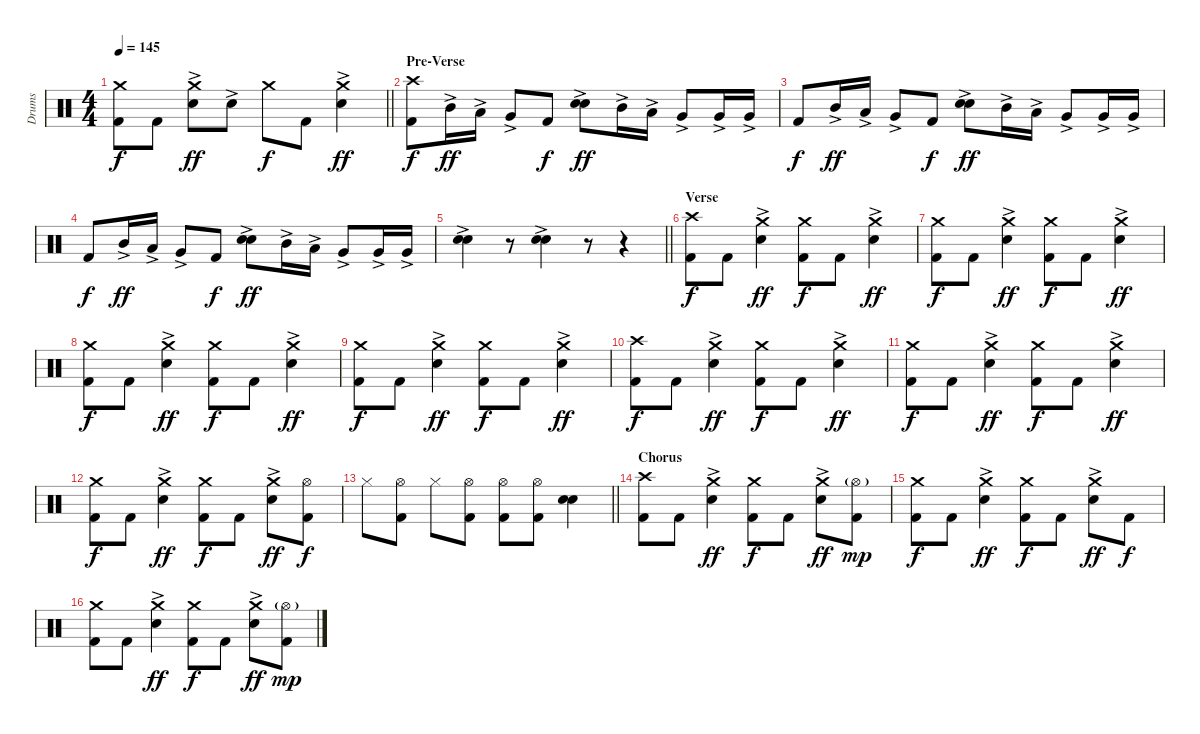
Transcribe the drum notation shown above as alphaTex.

\track ("Drums" "Drums") {instrument percussion}
\staff {score}
\articulation defaults
\ts (4 4)
\tempo 145
\clef neutral
\barLineRight lightlight
\ks c
("Crash medium (hit)" "Kick (hit) 2").8{dy f} "Kick (hit) 2".8 ("Crash medium (hit)" "Electric Snare (hit)"{ac}).8{dy ff} "Electric Snare (hit)"{ac}.8 "Crash medium (hit)".8{dy f} "Kick (hit) 2".8 ("Crash medium (hit)" "Electric Snare (hit)"{ac}).4{dy ff} |
\section ("" "Pre-Verse")
("Crash high (hit)" "Kick (hit) 2").8{dy f} "Mid Tom (hit)"{ac}.16{dy ff} "Low Tom (hit)"{ac}.16 "Very Low Tom (hit)"{ac}.8 "Kick (hit) 2".8{dy f} ("Electric Snare (hit)"{ac} "Electric Snare (hit)"{ac}).8{bu 120 dy ff} "Mid Tom (hit)"{ac}.16 "Low Tom (hit)"{ac}.16 "Very Low Tom (hit)"{ac}.8 "Very Low Tom (hit)"{ac}.16 "Very Low Tom (hit)"{ac}.16 |
"Kick (hit) 2".8{dy f} "Mid Tom (hit)"{ac}.16{dy ff} "Low Tom (hit)"{ac}.16 "Very Low Tom (hit)"{ac}.8 "Kick (hit) 2".8{dy f} ("Electric Snare (hit)"{ac} "Electric Snare (hit)"{ac}).8{bu 120 dy ff} "Mid Tom (hit)"{ac}.16 "Low Tom (hit)"{ac}.16 "Very Low Tom (hit)"{ac}.8 "Very Low Tom (hit)"{ac}.16 "Very Low Tom (hit)"{ac}.16 |
"Kick (hit) 2".8{dy f} "Mid Tom (hit)"{ac}.16{dy ff} "Low Tom (hit)"{ac}.16 "Very Low Tom (hit)"{ac}.8 "Kick (hit) 2".8{dy f} ("Electric Snare (hit)"{ac} "Electric Snare (hit)"{ac}).8{bu 120 dy ff} "Mid Tom (hit)"{ac}.16 "Low Tom (hit)"{ac}.16 "Very Low Tom (hit)"{ac}.8 "Very Low Tom (hit)"{ac}.16 "Very Low Tom (hit)"{ac}.16 |
\barLineRight lightlight
("Electric Snare (hit)"{ac} "Electric Snare (hit)"{ac}).4{bu 120} r.8 ("Electric Snare (hit)"{ac} "Electric Snare (hit)"{ac}).4{bu 120} r.8 r.4 |
\section ("" "Verse")
("Crash high (hit)" "Kick (hit) 2").8{dy f} "Kick (hit) 2".8 ("Crash medium (hit)" "Electric Snare (hit)"{ac}).4{dy ff} ("Crash medium (hit)" "Kick (hit) 2").8{dy f} "Kick (hit) 2".8 ("Crash medium (hit)" "Electric Snare (hit)"{ac}).4{dy ff} |
("Crash medium (hit)" "Kick (hit) 2").8{dy f} "Kick (hit) 2".8 ("Crash medium (hit)" "Electric Snare (hit)"{ac}).4{dy ff} ("Crash medium (hit)" "Kick (hit) 2").8{dy f} "Kick (hit) 2".8 ("Crash medium (hit)" "Electric Snare (hit)"{ac}).4{dy ff} |
("Crash medium (hit)" "Kick (hit) 2").8{dy f} "Kick (hit) 2".8 ("Crash medium (hit)" "Electric Snare (hit)"{ac}).4{dy ff} ("Crash medium (hit)" "Kick (hit) 2").8{dy f} "Kick (hit) 2".8 ("Crash medium (hit)" "Electric Snare (hit)"{ac}).4{dy ff} |
("Crash medium (hit)" "Kick (hit) 2").8{dy f} "Kick (hit) 2".8 ("Crash medium (hit)" "Electric Snare (hit)"{ac}).4{dy ff} ("Crash medium (hit)" "Kick (hit) 2").8{dy f} "Kick (hit) 2".8 ("Crash medium (hit)" "Electric Snare (hit)"{ac}).4{dy ff} |
("Crash high (hit)" "Kick (hit) 2").8{dy f} "Kick (hit) 2".8 ("Crash medium (hit)" "Electric Snare (hit)"{ac}).4{dy ff} ("Crash medium (hit)" "Kick (hit) 2").8{dy f} "Kick (hit) 2".8 ("Crash medium (hit)" "Electric Snare (hit)"{ac}).4{dy ff} |
("Crash medium (hit)" "Kick (hit) 2").8{dy f} "Kick (hit) 2".8 ("Crash medium (hit)" "Electric Snare (hit)"{ac}).4{dy ff} ("Crash medium (hit)" "Kick (hit) 2").8{dy f} "Kick (hit) 2".8 ("Crash medium (hit)" "Electric Snare (hit)"{ac}).4{dy ff} |
("Crash medium (hit)" "Kick (hit) 2").8{dy f} "Kick (hit) 2".8 ("Crash medium (hit)" "Electric Snare (hit)"{ac}).4{dy ff} ("Crash medium (hit)" "Kick (hit) 2").8{dy f} "Kick (hit) 2".8 ("Crash medium (hit)" "Electric Snare (hit)"{ac}).8{dy ff} ("Hi-Hat (open)" "Kick (hit) 2").8{dy f} |
\barLineRight lightlight "Hi-Hat (closed)".8
("Hi-Hat (open)" "Kick (hit) 2").8 "Hi-Hat (closed)".8 ("Hi-Hat (open)" "Kick (hit) 2").8 ("Hi-Hat (open)" "Kick (hit) 2").8 ("Hi-Hat (open)" "Kick (hit) 2").8 ("Electric Snare (hit)" "Electric Snare (hit)").4{bu 120} |
\section ("" "Chorus")
("Crash high (hit)" "Kick (hit) 2").8 "Kick (hit) 2".8 ("Crash medium (hit)" "Electric Snare (hit)"{ac}).4{dy ff} ("Crash medium (hit)" "Kick (hit) 2").8{dy f} "Kick (hit) 2".8 ("Crash medium (hit)" "Electric Snare (hit)"{ac}).8{dy ff} ("Hi-Hat (open)"{g} "Kick (hit) 2").8{dy mp} |
("Crash medium (hit)" "Kick (hit) 2").8{dy f} "Kick (hit) 2".8 ("Crash medium (hit)" "Electric Snare (hit)"{ac}).4{dy ff} ("Crash medium (hit)" "Kick (hit) 2").8{dy f} "Kick (hit) 2".8 ("Crash medium (hit)" "Electric Snare (hit)"{ac}).8{dy ff} "Kick (hit) 2".8{dy f} |
("Crash medium (hit)" "Kick (hit) 2").8 "Kick (hit) 2".8 ("Crash medium (hit)" "Electric Snare (hit)"{ac}).4{dy ff} ("Crash medium (hit)" "Kick (hit) 2").8{dy f} "Kick (hit) 2".8 ("Crash medium (hit)" "Electric Snare (hit)"{ac}).8{dy ff} ("Hi-Hat (open)"{g} "Kick (hit) 2").8{dy mp}
